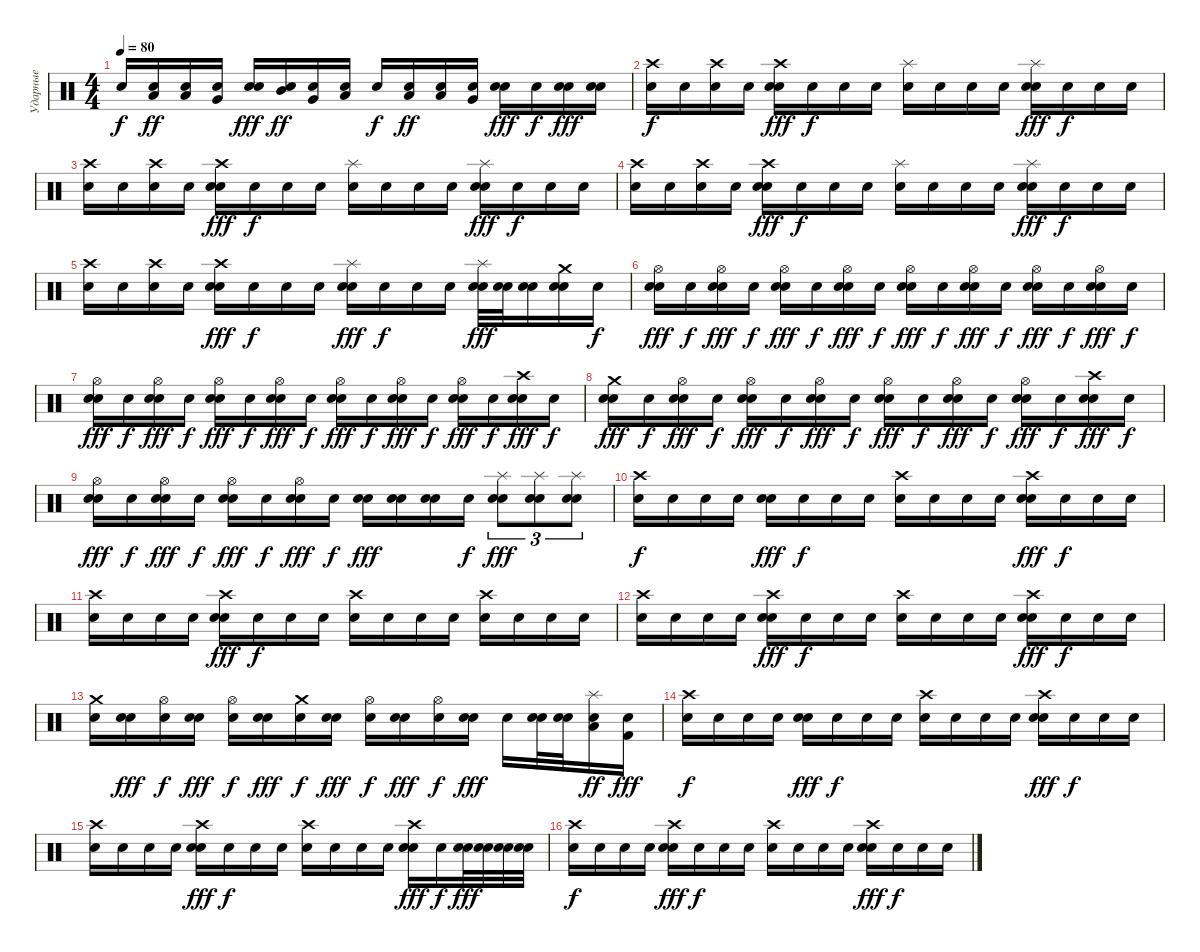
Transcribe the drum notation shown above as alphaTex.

\track ("Ударные" "Ударные") {instrument percussion}
\staff
\articulation defaults
\ts (4 4)
\tempo 80
\clef neutral
\ks c "Snare (hit)".16{dy f}
("Low Tom (hit)" "Snare (hit)").16{dy ff} ("Low Floor Tom (hit)" "Snare (hit)").16 ("Very Low Tom (hit)" "Snare (hit)").16 ("Electric Snare (hit)" "Snare (hit)").16{dy fff} ("Mid Tom (hit)" "Snare (hit)").16{dy ff} ("Very Low Tom (hit)" "Snare (hit)").16 ("Low Tom (hit)" "Snare (hit)").16 "Snare (hit)".16{dy f} ("Low Tom (hit)" "Snare (hit)").16{dy ff} ("Low Floor Tom (hit)" "Snare (hit)").16 ("Very Low Tom (hit)" "Snare (hit)").16 ("Electric Snare (hit)" "Snare (hit)").16{dy fff} "Snare (hit)".16{dy f} ("Electric Snare (hit)" "Snare (hit)").16{dy fff} ("Electric Snare (hit)" "Snare (hit)").16 |
("Crash high (hit)" "Snare (hit)").16{dy f} "Snare (hit)".16 ("Crash high (hit)" "Snare (hit)").16 "Snare (hit)".16 ("Crash high (hit)" "Electric Snare (hit)" "Snare (hit)").16{dy fff} "Snare (hit)".16{dy f} "Snare (hit)".16 "Snare (hit)".16 ("Splash (hit)" "Snare (hit)").16 "Snare (hit)".16 "Snare (hit)".16 "Snare (hit)".16 ("Splash (hit)" "Electric Snare (hit)" "Snare (hit)").16{dy fff} "Snare (hit)".16{dy f} "Snare (hit)".16 "Snare (hit)".16 |
("Crash high (hit)" "Snare (hit)").16 "Snare (hit)".16 ("Crash high (hit)" "Snare (hit)").16 "Snare (hit)".16 ("Crash high (hit)" "Electric Snare (hit)" "Snare (hit)").16{dy fff} "Snare (hit)".16{dy f} "Snare (hit)".16 "Snare (hit)".16 ("Splash (hit)" "Snare (hit)").16 "Snare (hit)".16 "Snare (hit)".16 "Snare (hit)".16 ("Splash (hit)" "Electric Snare (hit)" "Snare (hit)").16{dy fff} "Snare (hit)".16{dy f} "Snare (hit)".16 "Snare (hit)".16 |
("Crash high (hit)" "Snare (hit)").16 "Snare (hit)".16 ("Crash high (hit)" "Snare (hit)").16 "Snare (hit)".16 ("Crash high (hit)" "Electric Snare (hit)" "Snare (hit)").16{dy fff} "Snare (hit)".16{dy f} "Snare (hit)".16 "Snare (hit)".16 ("Splash (hit)" "Snare (hit)").16 "Snare (hit)".16 "Snare (hit)".16 "Snare (hit)".16 ("Splash (hit)" "Electric Snare (hit)" "Snare (hit)").16{dy fff} "Snare (hit)".16{dy f} "Snare (hit)".16 "Snare (hit)".16 |
("Crash high (hit)" "Snare (hit)").16 "Snare (hit)".16 ("Crash high (hit)" "Snare (hit)").16 "Snare (hit)".16 ("Crash high (hit)" "Electric Snare (hit)" "Snare (hit)").16{dy fff} "Snare (hit)".16{dy f} "Snare (hit)".16 "Snare (hit)".16 ("Splash (hit)" "Electric Snare (hit)" "Snare (hit)").16{dy fff} "Snare (hit)".16{dy f} "Snare (hit)".16 "Snare (hit)".16 ("Splash (hit)" "Electric Snare (hit)" "Snare (hit)").32{dy fff} ("Electric Snare (hit)" "Snare (hit)").32 ("Electric Snare (hit)" "Snare (hit)").16 ("Crash medium (hit)" "Electric Snare (hit)" "Snare (hit)").16 "Snare (hit)".16{dy f} |
("Hi-Hat (open)" "Electric Snare (hit)" "Snare (hit)").16{dy fff} "Snare (hit)".16{dy f} ("Hi-Hat (open)" "Electric Snare (hit)" "Snare (hit)").16{dy fff} "Snare (hit)".16{dy f} ("Hi-Hat (open)" "Electric Snare (hit)" "Snare (hit)").16{dy fff} "Snare (hit)".16{dy f} ("Hi-Hat (open)" "Electric Snare (hit)" "Snare (hit)").16{dy fff} "Snare (hit)".16{dy f} ("Hi-Hat (open)" "Electric Snare (hit)" "Snare (hit)").16{dy fff} "Snare (hit)".16{dy f} ("Hi-Hat (open)" "Electric Snare (hit)" "Snare (hit)").16{dy fff} "Snare (hit)".16{dy f} ("Hi-Hat (open)" "Electric Snare (hit)" "Snare (hit)").16{dy fff} "Snare (hit)".16{dy f} ("Hi-Hat (open)" "Electric Snare (hit)" "Snare (hit)").16{dy fff} "Snare (hit)".16{dy f} |
("Hi-Hat (open)" "Electric Snare (hit)" "Snare (hit)").16{dy fff} "Snare (hit)".16{dy f} ("Hi-Hat (open)" "Electric Snare (hit)" "Snare (hit)").16{dy fff} "Snare (hit)".16{dy f} ("Hi-Hat (open)" "Electric Snare (hit)" "Snare (hit)").16{dy fff} "Snare (hit)".16{dy f} ("Hi-Hat (open)" "Electric Snare (hit)" "Snare (hit)").16{dy fff} "Snare (hit)".16{dy f} ("Hi-Hat (open)" "Electric Snare (hit)" "Snare (hit)").16{dy fff} "Snare (hit)".16{dy f} ("Hi-Hat (open)" "Electric Snare (hit)" "Snare (hit)").16{dy fff} "Snare (hit)".16{dy f} ("Hi-Hat (open)" "Electric Snare (hit)" "Snare (hit)").16{dy fff} "Snare (hit)".16{dy f} ("Crash high (hit)" "Electric Snare (hit)" "Snare (hit)").16{dy fff} "Snare (hit)".16{dy f} |
("Crash medium (hit)" "Electric Snare (hit)" "Snare (hit)").16{dy fff} "Snare (hit)".16{dy f} ("Hi-Hat (open)" "Electric Snare (hit)" "Snare (hit)").16{dy fff} "Snare (hit)".16{dy f} ("Hi-Hat (open)" "Electric Snare (hit)" "Snare (hit)").16{dy fff} "Snare (hit)".16{dy f} ("Hi-Hat (open)" "Electric Snare (hit)" "Snare (hit)").16{dy fff} "Snare (hit)".16{dy f} ("Hi-Hat (open)" "Electric Snare (hit)" "Snare (hit)").16{dy fff} "Snare (hit)".16{dy f} ("Hi-Hat (open)" "Electric Snare (hit)" "Snare (hit)").16{dy fff} "Snare (hit)".16{dy f} ("Hi-Hat (open)" "Electric Snare (hit)" "Snare (hit)").16{dy fff} "Snare (hit)".16{dy f} ("Crash high (hit)" "Electric Snare (hit)" "Snare (hit)").16{dy fff} "Snare (hit)".16{dy f} |
("Hi-Hat (open)" "Electric Snare (hit)" "Snare (hit)").16{dy fff} "Snare (hit)".16{dy f} ("Hi-Hat (open)" "Electric Snare (hit)" "Snare (hit)").16{dy fff} "Snare (hit)".16{dy f} ("Hi-Hat (open)" "Electric Snare (hit)" "Snare (hit)").16{dy fff} "Snare (hit)".16{dy f} ("Hi-Hat (open)" "Electric Snare (hit)" "Snare (hit)").16{dy fff} "Snare (hit)".16{dy f} ("Electric Snare (hit)" "Snare (hit)").16{dy fff} ("Electric Snare (hit)" "Snare (hit)").16 ("Electric Snare (hit)" "Snare (hit)").16 "Snare (hit)".16{dy f} ("Splash (hit)" "Electric Snare (hit)" "Snare (hit)").8{tu (3 2) dy fff} ("Splash (hit)" "Electric Snare (hit)" "Snare (hit)").8{tu (3 2)} ("Splash (hit)" "Electric Snare (hit)" "Snare (hit)").8{tu (3 2)} |
("Crash high (hit)" "Snare (hit)").16{dy f} "Snare (hit)".16 "Snare (hit)".16 "Snare (hit)".16 ("Electric Snare (hit)" "Snare (hit)").16{dy fff} "Snare (hit)".16{dy f} "Snare (hit)".16 "Snare (hit)".16 ("Crash high (hit)" "Snare (hit)").16 "Snare (hit)".16 "Snare (hit)".16 "Snare (hit)".16 ("Crash high (hit)" "Electric Snare (hit)" "Snare (hit)").16{dy fff} "Snare (hit)".16{dy f} "Snare (hit)".16 "Snare (hit)".16 |
("Crash high (hit)" "Snare (hit)").16 "Snare (hit)".16 "Snare (hit)".16 "Snare (hit)".16 ("Crash high (hit)" "Electric Snare (hit)" "Snare (hit)").16{dy fff} "Snare (hit)".16{dy f} "Snare (hit)".16 "Snare (hit)".16 ("Crash high (hit)" "Snare (hit)").16 "Snare (hit)".16 "Snare (hit)".16 "Snare (hit)".16 ("Crash high (hit)" "Snare (hit)").16 "Snare (hit)".16 "Snare (hit)".16 "Snare (hit)".16 |
("Crash high (hit)" "Snare (hit)").16 "Snare (hit)".16 "Snare (hit)".16 "Snare (hit)".16 ("Crash high (hit)" "Electric Snare (hit)" "Snare (hit)").16{dy fff} "Snare (hit)".16{dy f} "Snare (hit)".16 "Snare (hit)".16 ("Crash high (hit)" "Snare (hit)").16 "Snare (hit)".16 "Snare (hit)".16 "Snare (hit)".16 ("Crash high (hit)" "Electric Snare (hit)" "Snare (hit)").16{dy fff} "Snare (hit)".16{dy f} "Snare (hit)".16 "Snare (hit)".16 |
("Crash medium (hit)" "Snare (hit)").16 ("Electric Snare (hit)" "Snare (hit)").16{dy fff} ("Hi-Hat (open)" "Snare (hit)").16{dy f} ("Electric Snare (hit)" "Snare (hit)").16{dy fff} ("Hi-Hat (open)" "Snare (hit)").16{dy f} ("Electric Snare (hit)" "Snare (hit)").16{dy fff} ("Crash medium (hit)" "Snare (hit)").16{dy f} ("Electric Snare (hit)" "Snare (hit)").16{dy fff} ("Hi-Hat (open)" "Snare (hit)").16{dy f} ("Electric Snare (hit)" "Snare (hit)").16{dy fff} ("Hi-Hat (open)" "Snare (hit)").16{dy f} ("Electric Snare (hit)" "Snare (hit)").16{dy fff} "Snare (hit)".16 ("Electric Snare (hit)" "Snare (hit)").32 ("Electric Snare (hit)" "Snare (hit)").32 ("Splash (hit)" "Low Tom (hit)" "Snare (hit)").16{dy ff} ("Kick (hit) 2" "Snare (hit)").16{dy fff} |
("Crash high (hit)" "Snare (hit)").16{dy f} "Snare (hit)".16 "Snare (hit)".16 "Snare (hit)".16 ("Electric Snare (hit)" "Snare (hit)").16{dy fff} "Snare (hit)".16{dy f} "Snare (hit)".16 "Snare (hit)".16 ("Crash high (hit)" "Snare (hit)").16 "Snare (hit)".16 "Snare (hit)".16 "Snare (hit)".16 ("Crash high (hit)" "Electric Snare (hit)" "Snare (hit)").16{dy fff} "Snare (hit)".16{dy f} "Snare (hit)".16 "Snare (hit)".16 |
("Crash high (hit)" "Snare (hit)").16 "Snare (hit)".16 "Snare (hit)".16 "Snare (hit)".16 ("Crash high (hit)" "Electric Snare (hit)" "Snare (hit)").16{dy fff} "Snare (hit)".16{dy f} "Snare (hit)".16 "Snare (hit)".16 ("Crash high (hit)" "Snare (hit)").16 "Snare (hit)".16 "Snare (hit)".16 "Snare (hit)".16 ("Crash high (hit)" "Electric Snare (hit)" "Snare (hit)").16{dy fff} "Snare (hit)".16{dy f} ("Electric Snare (hit)" "Snare (hit)").32{dy fff} ("Electric Snare (hit)" "Snare (hit)").32 ("Electric Snare (hit)" "Snare (hit)").32 ("Electric Snare (hit)" "Snare (hit)").32 |
("Crash high (hit)" "Snare (hit)").16{dy f} "Snare (hit)".16 "Snare (hit)".16 "Snare (hit)".16 ("Crash high (hit)" "Electric Snare (hit)" "Snare (hit)").16{dy fff} "Snare (hit)".16{dy f} "Snare (hit)".16 "Snare (hit)".16 ("Crash high (hit)" "Snare (hit)").16 "Snare (hit)".16 "Snare (hit)".16 "Snare (hit)".16 ("Crash high (hit)" "Electric Snare (hit)" "Snare (hit)").16{dy fff} "Snare (hit)".16{dy f} "Snare (hit)".16 "Snare (hit)".16
